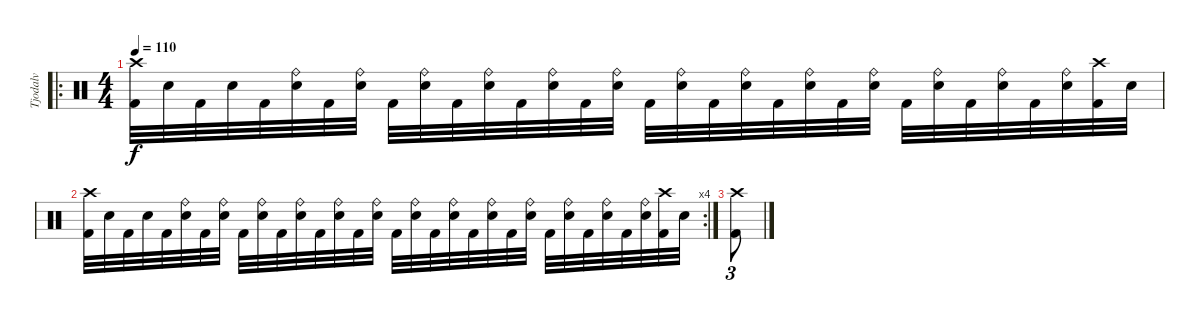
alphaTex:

\track ("Tjodalv" "Tjodalv") {instrument percussion}
\staff {score}
\articulation defaults
\ro
\ts (4 4)
\tempo 110
\clef neutral
\ks c
("Kick (hit) 2" "Crash high (hit)").32{dy f} "Snare (hit) 2".32 "Kick (hit) 2".32 "Snare (hit) 2".32 "Kick (hit) 2".32 ("Snare (hit) 2" "Ride (bell)").32 "Kick (hit) 2".32 ("Snare (hit) 2" "Ride (bell)").32 "Kick (hit) 2".32 ("Snare (hit) 2" "Ride (bell)").32 "Kick (hit) 2".32 ("Snare (hit) 2" "Ride (bell)").32 "Kick (hit) 2".32 ("Snare (hit) 2" "Ride (bell)").32 "Kick (hit) 2".32 ("Snare (hit) 2" "Ride (bell)").32 "Kick (hit) 2".32 ("Snare (hit) 2" "Ride (bell)").32 "Kick (hit) 2".32 ("Snare (hit) 2" "Ride (bell)").32 "Kick (hit) 2".32 ("Snare (hit) 2" "Ride (bell)").32 "Kick (hit) 2".32 ("Snare (hit) 2" "Ride (bell)").32 "Kick (hit) 2".32 ("Snare (hit) 2" "Ride (bell)").32 "Kick (hit) 2".32 ("Snare (hit) 2" "Ride (bell)").32 "Kick (hit) 2".32 ("Snare (hit) 2" "Ride (bell)").32 ("Kick (hit) 2" "Crash high (hit)").32 "Snare (hit) 2".32 |
\rc 4
("Kick (hit) 2" "Crash high (hit)").32 "Snare (hit) 2".32 "Kick (hit) 2".32 "Snare (hit) 2".32 "Kick (hit) 2".32 ("Snare (hit) 2" "Ride (bell)").32 "Kick (hit) 2".32 ("Snare (hit) 2" "Ride (bell)").32 "Kick (hit) 2".32 ("Snare (hit) 2" "Ride (bell)").32 "Kick (hit) 2".32 ("Snare (hit) 2" "Ride (bell)").32 "Kick (hit) 2".32 ("Snare (hit) 2" "Ride (bell)").32 "Kick (hit) 2".32 ("Snare (hit) 2" "Ride (bell)").32 "Kick (hit) 2".32 ("Snare (hit) 2" "Ride (bell)").32 "Kick (hit) 2".32 ("Snare (hit) 2" "Ride (bell)").32 "Kick (hit) 2".32 ("Snare (hit) 2" "Ride (bell)").32 "Kick (hit) 2".32 ("Snare (hit) 2" "Ride (bell)").32 "Kick (hit) 2".32 ("Snare (hit) 2" "Ride (bell)").32 "Kick (hit) 2".32 ("Snare (hit) 2" "Ride (bell)").32 "Kick (hit) 2".32 ("Snare (hit) 2" "Ride (bell)").32 ("Kick (hit) 2" "Crash high (hit)").32 "Snare (hit) 2".32 |
("Kick (hit) 2" "Crash high (hit)").8{tu (3 2)}
